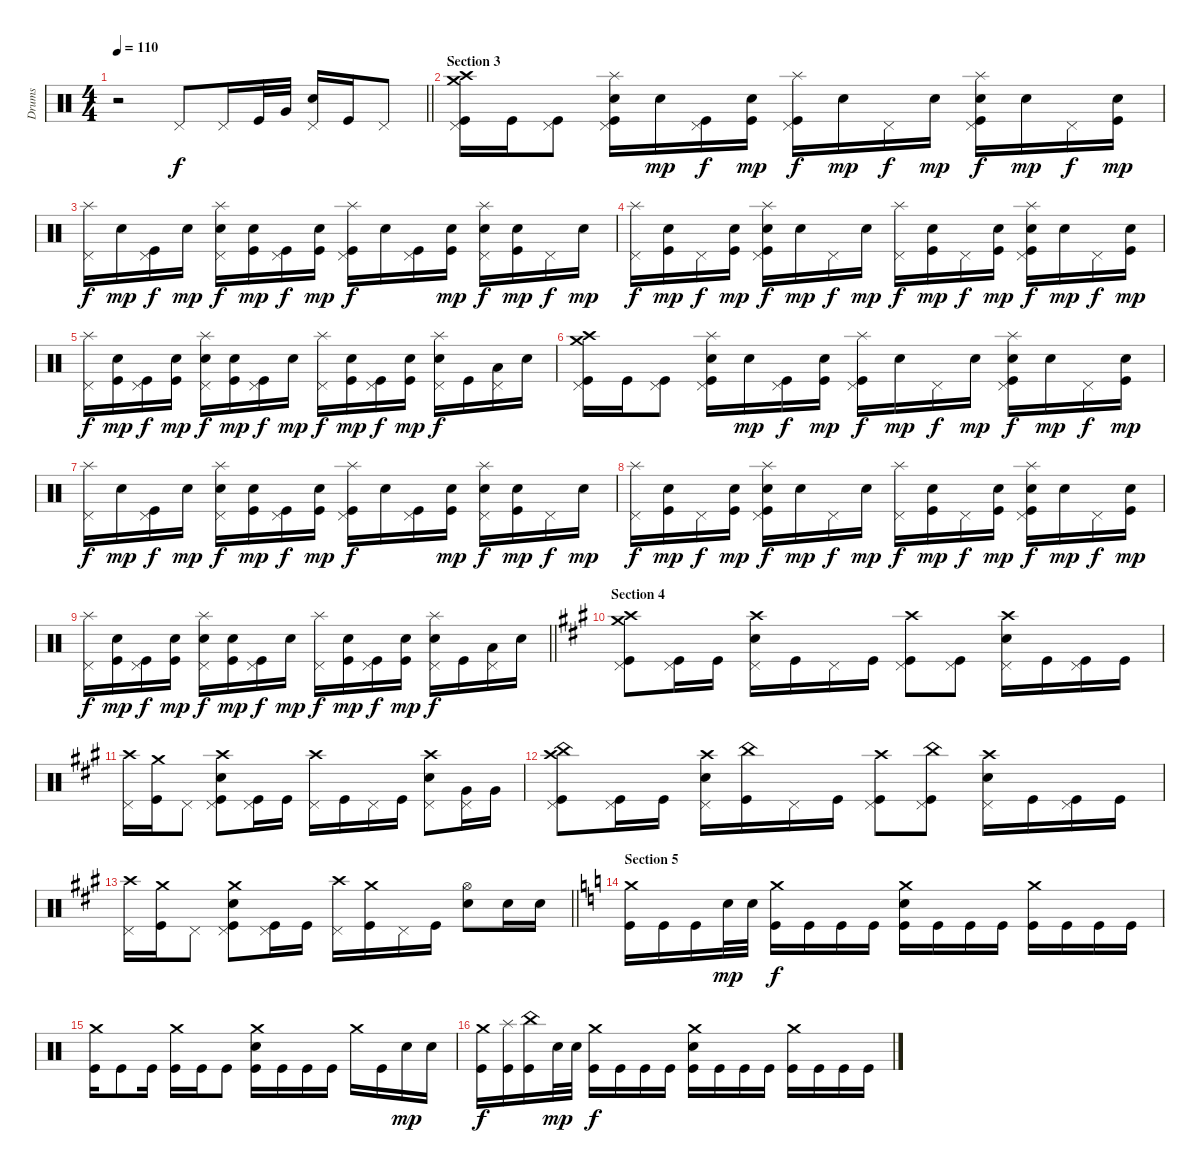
\track ("Drums" "Drums") {instrument percussion}
\staff {score}
\articulation defaults
\ts (4 4)
\tempo 110
\clef neutral
\barLineRight lightlight
\ks c
r.2{dy f} "Pedal Hi-Hat (hit)".8 "Pedal Hi-Hat (hit)".16 "Kick (hit)".32 "Very Low Tom (hit)".32 ("Electric Snare (hit)" "Pedal Hi-Hat (hit)").16 "Kick (hit)".16 "Pedal Hi-Hat (hit)".8 |
\section ("" "Section 3")
("Crash high (hit)" "Crash medium (hit)" "Kick (hit)" "Pedal Hi-Hat (hit)").16 "Kick (hit)".16 ("Kick (hit)" "Pedal Hi-Hat (hit)").8 ("Splash (hit)" "Electric Snare (hit)" "Kick (hit)" "Pedal Hi-Hat (hit)").16 "Electric Snare (hit)".16{dy mp} ("Kick (hit)" "Pedal Hi-Hat (hit)").16{dy f} ("Electric Snare (hit)" "Kick (hit)").16{dy mp} ("Splash (hit)" "Kick (hit)" "Pedal Hi-Hat (hit)").16{dy f} "Electric Snare (hit)".16{dy mp} "Pedal Hi-Hat (hit)".16{dy f} "Electric Snare (hit)".16{dy mp} ("Splash (hit)" "Electric Snare (hit)" "Kick (hit)" "Pedal Hi-Hat (hit)").16{dy f} "Electric Snare (hit)".16{dy mp} "Pedal Hi-Hat (hit)".16{dy f} ("Electric Snare (hit)" "Kick (hit)").16{dy mp} |
("Splash (hit)" "Pedal Hi-Hat (hit)").16{dy f} "Electric Snare (hit)".16{dy mp} ("Kick (hit)" "Pedal Hi-Hat (hit)").16{dy f} "Electric Snare (hit)".16{dy mp} ("Splash (hit)" "Electric Snare (hit)" "Pedal Hi-Hat (hit)").16{dy f} ("Electric Snare (hit)" "Kick (hit)").16{dy mp} ("Kick (hit)" "Pedal Hi-Hat (hit)").16{dy f} ("Electric Snare (hit)" "Kick (hit)").16{dy mp} ("Splash (hit)" "Kick (hit)" "Pedal Hi-Hat (hit)").16{dy f} "Electric Snare (hit)".16 ("Kick (hit)" "Pedal Hi-Hat (hit)").16 ("Electric Snare (hit)" "Kick (hit)").16{dy mp} ("Splash (hit)" "Electric Snare (hit)" "Pedal Hi-Hat (hit)").16{dy f} ("Electric Snare (hit)" "Kick (hit)").16{dy mp} "Pedal Hi-Hat (hit)".16{dy f} "Electric Snare (hit)".16{dy mp} |
("Splash (hit)" "Pedal Hi-Hat (hit)").16{dy f} ("Electric Snare (hit)" "Kick (hit)").16{dy mp} "Pedal Hi-Hat (hit)".16{dy f} ("Electric Snare (hit)" "Kick (hit)").16{dy mp} ("Splash (hit)" "Electric Snare (hit)" "Kick (hit)" "Pedal Hi-Hat (hit)").16{dy f} "Electric Snare (hit)".16{dy mp} "Pedal Hi-Hat (hit)".16{dy f} "Electric Snare (hit)".16{dy mp} ("Splash (hit)" "Pedal Hi-Hat (hit)").16{dy f} ("Electric Snare (hit)" "Kick (hit)").16{dy mp} "Pedal Hi-Hat (hit)".16{dy f} ("Electric Snare (hit)" "Kick (hit)").16{dy mp} ("Splash (hit)" "Electric Snare (hit)" "Kick (hit)" "Pedal Hi-Hat (hit)").16{dy f} "Electric Snare (hit)".16{dy mp} "Pedal Hi-Hat (hit)".16{dy f} ("Electric Snare (hit)" "Kick (hit)").16{dy mp} |
("Splash (hit)" "Pedal Hi-Hat (hit)").16{dy f} ("Electric Snare (hit)" "Kick (hit)").16{dy mp} ("Kick (hit)" "Pedal Hi-Hat (hit)").16{dy f} ("Electric Snare (hit)" "Kick (hit)").16{dy mp} ("Splash (hit)" "Electric Snare (hit)" "Pedal Hi-Hat (hit)").16{dy f} ("Electric Snare (hit)" "Kick (hit)").16{dy mp} ("Kick (hit)" "Pedal Hi-Hat (hit)").16{dy f} "Electric Snare (hit)".16{dy mp} ("Splash (hit)" "Pedal Hi-Hat (hit)").16{dy f} ("Electric Snare (hit)" "Kick (hit)").16{dy mp} ("Kick (hit)" "Pedal Hi-Hat (hit)").16{dy f} ("Electric Snare (hit)" "Kick (hit)").16{dy mp} ("Splash (hit)" "Electric Snare (hit)" "Pedal Hi-Hat (hit)").16{dy f} "Kick (hit)".16 ("Low Tom (hit)" "Pedal Hi-Hat (hit)").16 "Electric Snare (hit)".16 |
("Crash high (hit)" "Crash medium (hit)" "Kick (hit)" "Pedal Hi-Hat (hit)").16 "Kick (hit)".16 ("Kick (hit)" "Pedal Hi-Hat (hit)").8 ("Splash (hit)" "Electric Snare (hit)" "Kick (hit)" "Pedal Hi-Hat (hit)").16 "Electric Snare (hit)".16{dy mp} ("Kick (hit)" "Pedal Hi-Hat (hit)").16{dy f} ("Electric Snare (hit)" "Kick (hit)").16{dy mp} ("Splash (hit)" "Kick (hit)" "Pedal Hi-Hat (hit)").16{dy f} "Electric Snare (hit)".16{dy mp} "Pedal Hi-Hat (hit)".16{dy f} "Electric Snare (hit)".16{dy mp} ("Splash (hit)" "Electric Snare (hit)" "Kick (hit)" "Pedal Hi-Hat (hit)").16{dy f} "Electric Snare (hit)".16{dy mp} "Pedal Hi-Hat (hit)".16{dy f} ("Electric Snare (hit)" "Kick (hit)").16{dy mp} |
("Splash (hit)" "Pedal Hi-Hat (hit)").16{dy f} "Electric Snare (hit)".16{dy mp} ("Kick (hit)" "Pedal Hi-Hat (hit)").16{dy f} "Electric Snare (hit)".16{dy mp} ("Splash (hit)" "Electric Snare (hit)" "Pedal Hi-Hat (hit)").16{dy f} ("Electric Snare (hit)" "Kick (hit)").16{dy mp} ("Kick (hit)" "Pedal Hi-Hat (hit)").16{dy f} ("Electric Snare (hit)" "Kick (hit)").16{dy mp} ("Splash (hit)" "Kick (hit)" "Pedal Hi-Hat (hit)").16{dy f} "Electric Snare (hit)".16 ("Kick (hit)" "Pedal Hi-Hat (hit)").16 ("Electric Snare (hit)" "Kick (hit)").16{dy mp} ("Splash (hit)" "Electric Snare (hit)" "Pedal Hi-Hat (hit)").16{dy f} ("Electric Snare (hit)" "Kick (hit)").16{dy mp} "Pedal Hi-Hat (hit)".16{dy f} "Electric Snare (hit)".16{dy mp} |
("Splash (hit)" "Pedal Hi-Hat (hit)").16{dy f} ("Electric Snare (hit)" "Kick (hit)").16{dy mp} "Pedal Hi-Hat (hit)".16{dy f} ("Electric Snare (hit)" "Kick (hit)").16{dy mp} ("Splash (hit)" "Electric Snare (hit)" "Kick (hit)" "Pedal Hi-Hat (hit)").16{dy f} "Electric Snare (hit)".16{dy mp} "Pedal Hi-Hat (hit)".16{dy f} "Electric Snare (hit)".16{dy mp} ("Splash (hit)" "Pedal Hi-Hat (hit)").16{dy f} ("Electric Snare (hit)" "Kick (hit)").16{dy mp} "Pedal Hi-Hat (hit)".16{dy f} ("Electric Snare (hit)" "Kick (hit)").16{dy mp} ("Splash (hit)" "Electric Snare (hit)" "Kick (hit)" "Pedal Hi-Hat (hit)").16{dy f} "Electric Snare (hit)".16{dy mp} "Pedal Hi-Hat (hit)".16{dy f} ("Electric Snare (hit)" "Kick (hit)").16{dy mp} |
\barLineRight lightlight
("Splash (hit)" "Pedal Hi-Hat (hit)").16{dy f} ("Electric Snare (hit)" "Kick (hit)").16{dy mp} ("Kick (hit)" "Pedal Hi-Hat (hit)").16{dy f} ("Electric Snare (hit)" "Kick (hit)").16{dy mp} ("Splash (hit)" "Electric Snare (hit)" "Pedal Hi-Hat (hit)").16{dy f} ("Electric Snare (hit)" "Kick (hit)").16{dy mp} ("Kick (hit)" "Pedal Hi-Hat (hit)").16{dy f} "Electric Snare (hit)".16{dy mp} ("Splash (hit)" "Pedal Hi-Hat (hit)").16{dy f} ("Electric Snare (hit)" "Kick (hit)").16{dy mp} ("Kick (hit)" "Pedal Hi-Hat (hit)").16{dy f} ("Electric Snare (hit)" "Kick (hit)").16{dy mp} ("Splash (hit)" "Electric Snare (hit)" "Pedal Hi-Hat (hit)").16{dy f} "Kick (hit)".16 ("Low Tom (hit)" "Pedal Hi-Hat (hit)").16 "Electric Snare (hit)".16 |
\section ("" "Section 4")
\ks f#minor
("Crash high (hit)" "Crash medium (hit)" "Kick (hit)" "Pedal Hi-Hat (hit)").8 ("Kick (hit)" "Pedal Hi-Hat (hit)").16 "Kick (hit)".16 ("Crash high (hit)" "Electric Snare (hit)" "Pedal Hi-Hat (hit)").16 "Kick (hit)".16 "Pedal Hi-Hat (hit)".16 "Kick (hit)".16 ("Crash high (hit)" "Kick (hit)" "Pedal Hi-Hat (hit)").8 ("Kick (hit)" "Pedal Hi-Hat (hit)").8 ("Crash high (hit)" "Electric Snare (hit)" "Pedal Hi-Hat (hit)").16 "Kick (hit)".16 ("Kick (hit)" "Pedal Hi-Hat (hit)").16 "Kick (hit)".16 |
("Crash high (hit)" "Pedal Hi-Hat (hit)").16 ("Crash medium (hit)" "Kick (hit)").16 "Pedal Hi-Hat (hit)".8 ("Crash high (hit)" "Electric Snare (hit)" "Kick (hit)" "Pedal Hi-Hat (hit)").8 ("Kick (hit)" "Pedal Hi-Hat (hit)").16 "Kick (hit)".16 ("Crash high (hit)" "Pedal Hi-Hat (hit)").16 "Kick (hit)".16 "Pedal Hi-Hat (hit)".16 "Kick (hit)".16 ("Crash high (hit)" "Electric Snare (hit)" "Pedal Hi-Hat (hit)").8 ("Very Low Tom (hit)" "Pedal Hi-Hat (hit)").16 "Very Low Tom (hit)".16 |
("Crash high (hit)" "China (hit)" "Kick (hit)" "Pedal Hi-Hat (hit)").8 ("Kick (hit)" "Pedal Hi-Hat (hit)").16 "Kick (hit)".16 ("Crash high (hit)" "Electric Snare (hit)" "Pedal Hi-Hat (hit)").16 ("China (hit)" "Kick (hit)").16 "Pedal Hi-Hat (hit)".16 "Kick (hit)".16 ("Crash high (hit)" "Kick (hit)" "Pedal Hi-Hat (hit)").8 ("China (hit)" "Kick (hit)" "Pedal Hi-Hat (hit)").8 ("Crash high (hit)" "Electric Snare (hit)" "Pedal Hi-Hat (hit)").16 "Kick (hit)".16 ("Kick (hit)" "Pedal Hi-Hat (hit)").16 "Kick (hit)".16 |
\barLineRight lightlight
("Crash high (hit)" "Pedal Hi-Hat (hit)").16 ("Crash medium (hit)" "Kick (hit)").16 "Pedal Hi-Hat (hit)".8 ("Crash medium (hit)" "Electric Snare (hit)" "Kick (hit)" "Pedal Hi-Hat (hit)").8 ("Kick (hit)" "Pedal Hi-Hat (hit)").16 "Kick (hit)".16 ("Crash high (hit)" "Pedal Hi-Hat (hit)").16 ("Crash medium (hit)" "Kick (hit)").16 "Pedal Hi-Hat (hit)".16 "Kick (hit)".16 ("Hi-Hat (open)" "Electric Snare (hit)").8 "Electric Snare (hit)".16 "Electric Snare (hit)".16 |
\section ("" "Section 5")
\ks c
("Crash medium (hit)" "Kick (hit)").16 "Kick (hit)".16 "Kick (hit)".16 "Electric Snare (hit)".32{dy mp} "Electric Snare (hit)".32 ("Crash medium (hit)" "Kick (hit)").16{dy f} "Kick (hit)".16 "Kick (hit)".16 "Kick (hit)".16 ("Crash medium (hit)" "Electric Snare (hit)" "Kick (hit)").16 "Kick (hit)".16 "Kick (hit)".16 "Kick (hit)".16 ("Crash medium (hit)" "Kick (hit)").16 "Kick (hit)".16 "Kick (hit)".16 "Kick (hit)".16 |
("Crash medium (hit)" "Kick (hit)").16 "Kick (hit)".8 "Kick (hit)".16 ("Crash medium (hit)" "Kick (hit)").16 "Kick (hit)".16 "Kick (hit)".8 ("Crash medium (hit)" "Electric Snare (hit)" "Kick (hit)").16 "Kick (hit)".16 "Kick (hit)".16 "Kick (hit)".16 "Crash medium (hit)".16 "Kick (hit)".16 "Electric Snare (hit)".16{dy mp} "Electric Snare (hit)".16 |
("Crash medium (hit)" "Kick (hit)").16{dy f} ("Splash (hit)" "Kick (hit)").16 ("China (hit)" "Kick (hit)").16 "Electric Snare (hit)".32{dy mp} "Electric Snare (hit)".32 ("Crash medium (hit)" "Kick (hit)").16{dy f} "Kick (hit)".16 "Kick (hit)".16 "Kick (hit)".16 ("Crash medium (hit)" "Electric Snare (hit)" "Kick (hit)").16 "Kick (hit)".16 "Kick (hit)".16 "Kick (hit)".16 ("Crash medium (hit)" "Kick (hit)").16 "Kick (hit)".16 "Kick (hit)".16 "Kick (hit)".16
